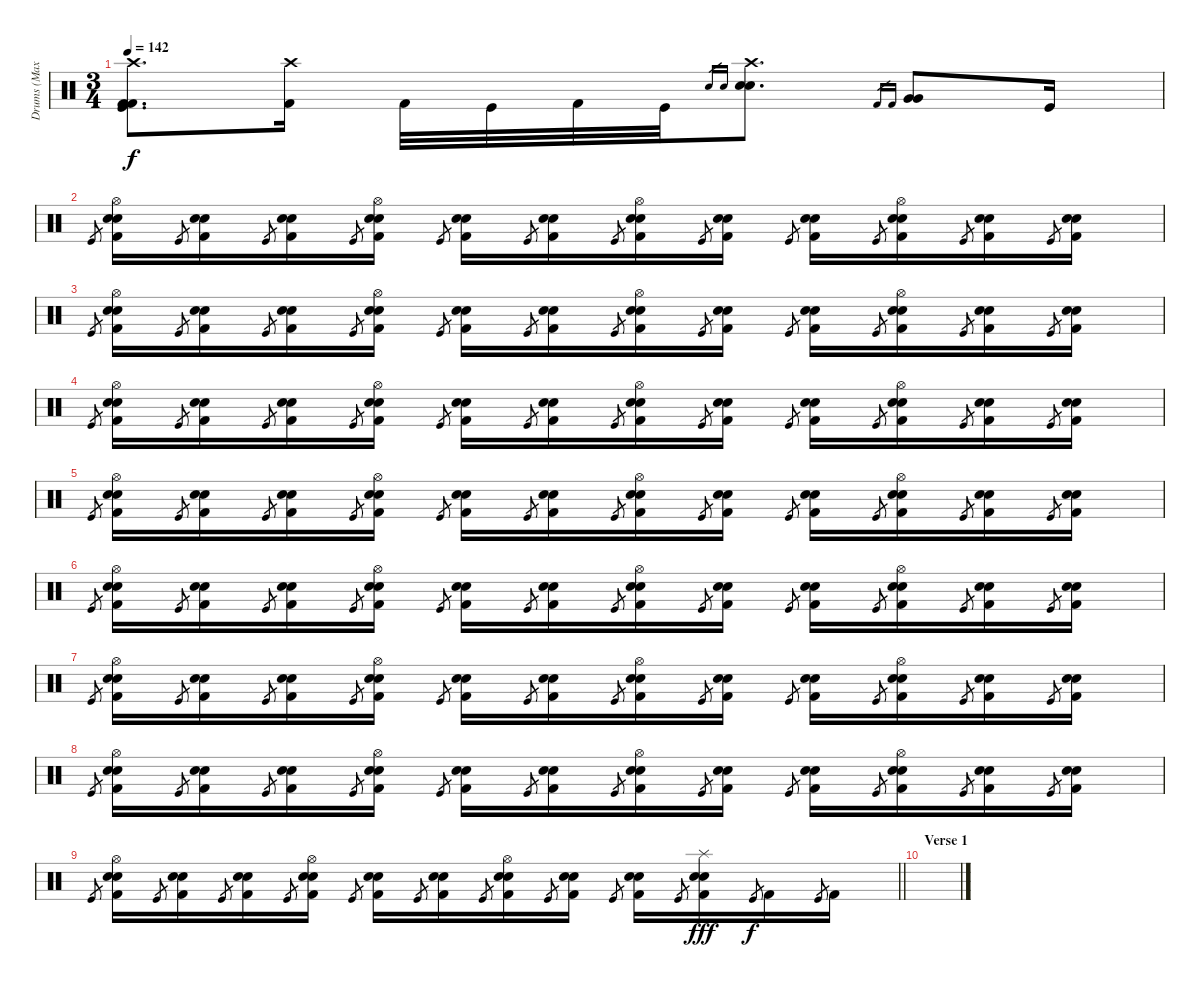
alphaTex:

\track ("Drums (Max)" "Drums (Max") {instrument percussion}
\staff {score}
\articulation defaults
\ts (3 4)
\tempo 142
\clef neutral
\ks c
("Crash high (hit)" "Kick (hit)" "Kick (hit) 2" "Kick (hit) 2").8{d dy f} ("Crash high (hit)" "Kick (hit) 2").16 "Kick (hit) 2".32 "Kick (hit)".32 "Kick (hit) 2".32 "Kick (hit)".32 "Electric Snare (hit)".16{gr} "Snare (hit) 2".16{gr} ("Crash high (hit)" "Electric Snare (hit)" "Snare (hit) 2").8{d} "Kick (hit) 2".16{gr} "Kick (hit) 2".16{gr} ("Very Low Tom (hit)" "Very Low Tom (hit)").8 "Kick (hit)".16 |
"Kick (hit)".8{gr} ("Hi-Hat (open)" "Electric Snare (hit)" "Snare (hit) 2" "Kick (hit) 2").16 "Kick (hit)".8{gr} ("Electric Snare (hit)" "Snare (hit) 2" "Kick (hit) 2").16 "Kick (hit)".8{gr} ("Electric Snare (hit)" "Snare (hit) 2" "Kick (hit) 2").16 "Kick (hit)".8{gr} ("Hi-Hat (open)" "Electric Snare (hit)" "Snare (hit) 2" "Kick (hit) 2").16 "Kick (hit)".8{gr} ("Electric Snare (hit)" "Snare (hit) 2" "Kick (hit) 2").16 "Kick (hit)".8{gr} ("Electric Snare (hit)" "Snare (hit) 2" "Kick (hit) 2").16 "Kick (hit)".8{gr} ("Hi-Hat (open)" "Electric Snare (hit)" "Snare (hit) 2" "Kick (hit) 2").16 "Kick (hit)".8{gr} ("Electric Snare (hit)" "Snare (hit) 2" "Kick (hit) 2").16 "Kick (hit)".8{gr} ("Electric Snare (hit)" "Snare (hit) 2" "Kick (hit) 2").16 "Kick (hit)".8{gr} ("Hi-Hat (open)" "Electric Snare (hit)" "Snare (hit) 2" "Kick (hit) 2").16 "Kick (hit)".8{gr} ("Electric Snare (hit)" "Snare (hit) 2" "Kick (hit) 2").16 "Kick (hit)".8{gr} ("Electric Snare (hit)" "Snare (hit) 2" "Kick (hit) 2").16 |
"Kick (hit)".8{gr} ("Hi-Hat (open)" "Electric Snare (hit)" "Snare (hit) 2" "Kick (hit) 2").16 "Kick (hit)".8{gr} ("Electric Snare (hit)" "Snare (hit) 2" "Kick (hit) 2").16 "Kick (hit)".8{gr} ("Electric Snare (hit)" "Snare (hit) 2" "Kick (hit) 2").16 "Kick (hit)".8{gr} ("Hi-Hat (open)" "Electric Snare (hit)" "Snare (hit) 2" "Kick (hit) 2").16 "Kick (hit)".8{gr} ("Electric Snare (hit)" "Snare (hit) 2" "Kick (hit) 2").16 "Kick (hit)".8{gr} ("Electric Snare (hit)" "Snare (hit) 2" "Kick (hit) 2").16 "Kick (hit)".8{gr} ("Hi-Hat (open)" "Electric Snare (hit)" "Snare (hit) 2" "Kick (hit) 2").16 "Kick (hit)".8{gr} ("Electric Snare (hit)" "Snare (hit) 2" "Kick (hit) 2").16 "Kick (hit)".8{gr} ("Electric Snare (hit)" "Snare (hit) 2" "Kick (hit) 2").16 "Kick (hit)".8{gr} ("Hi-Hat (open)" "Electric Snare (hit)" "Snare (hit) 2" "Kick (hit) 2").16 "Kick (hit)".8{gr} ("Electric Snare (hit)" "Snare (hit) 2" "Kick (hit) 2").16 "Kick (hit)".8{gr} ("Electric Snare (hit)" "Snare (hit) 2" "Kick (hit) 2").16 |
"Kick (hit)".8{gr} ("Hi-Hat (open)" "Electric Snare (hit)" "Snare (hit) 2" "Kick (hit) 2").16 "Kick (hit)".8{gr} ("Electric Snare (hit)" "Snare (hit) 2" "Kick (hit) 2").16 "Kick (hit)".8{gr} ("Electric Snare (hit)" "Snare (hit) 2" "Kick (hit) 2").16 "Kick (hit)".8{gr} ("Hi-Hat (open)" "Electric Snare (hit)" "Snare (hit) 2" "Kick (hit) 2").16 "Kick (hit)".8{gr} ("Electric Snare (hit)" "Snare (hit) 2" "Kick (hit) 2").16 "Kick (hit)".8{gr} ("Electric Snare (hit)" "Snare (hit) 2" "Kick (hit) 2").16 "Kick (hit)".8{gr} ("Hi-Hat (open)" "Electric Snare (hit)" "Snare (hit) 2" "Kick (hit) 2").16 "Kick (hit)".8{gr} ("Electric Snare (hit)" "Snare (hit) 2" "Kick (hit) 2").16 "Kick (hit)".8{gr} ("Electric Snare (hit)" "Snare (hit) 2" "Kick (hit) 2").16 "Kick (hit)".8{gr} ("Hi-Hat (open)" "Electric Snare (hit)" "Snare (hit) 2" "Kick (hit) 2").16 "Kick (hit)".8{gr} ("Electric Snare (hit)" "Snare (hit) 2" "Kick (hit) 2").16 "Kick (hit)".8{gr} ("Electric Snare (hit)" "Snare (hit) 2" "Kick (hit) 2").16 |
"Kick (hit)".8{gr} ("Hi-Hat (open)" "Electric Snare (hit)" "Snare (hit) 2" "Kick (hit) 2").16 "Kick (hit)".8{gr} ("Electric Snare (hit)" "Snare (hit) 2" "Kick (hit) 2").16 "Kick (hit)".8{gr} ("Electric Snare (hit)" "Snare (hit) 2" "Kick (hit) 2").16 "Kick (hit)".8{gr} ("Hi-Hat (open)" "Electric Snare (hit)" "Snare (hit) 2" "Kick (hit) 2").16 "Kick (hit)".8{gr} ("Electric Snare (hit)" "Snare (hit) 2" "Kick (hit) 2").16 "Kick (hit)".8{gr} ("Electric Snare (hit)" "Snare (hit) 2" "Kick (hit) 2").16 "Kick (hit)".8{gr} ("Hi-Hat (open)" "Electric Snare (hit)" "Snare (hit) 2" "Kick (hit) 2").16 "Kick (hit)".8{gr} ("Electric Snare (hit)" "Snare (hit) 2" "Kick (hit) 2").16 "Kick (hit)".8{gr} ("Electric Snare (hit)" "Snare (hit) 2" "Kick (hit) 2").16 "Kick (hit)".8{gr} ("Hi-Hat (open)" "Electric Snare (hit)" "Snare (hit) 2" "Kick (hit) 2").16 "Kick (hit)".8{gr} ("Electric Snare (hit)" "Snare (hit) 2" "Kick (hit) 2").16 "Kick (hit)".8{gr} ("Electric Snare (hit)" "Snare (hit) 2" "Kick (hit) 2").16 |
"Kick (hit)".8{gr} ("Hi-Hat (open)" "Electric Snare (hit)" "Snare (hit) 2" "Kick (hit) 2").16 "Kick (hit)".8{gr} ("Electric Snare (hit)" "Snare (hit) 2" "Kick (hit) 2").16 "Kick (hit)".8{gr} ("Electric Snare (hit)" "Snare (hit) 2" "Kick (hit) 2").16 "Kick (hit)".8{gr} ("Hi-Hat (open)" "Electric Snare (hit)" "Snare (hit) 2" "Kick (hit) 2").16 "Kick (hit)".8{gr} ("Electric Snare (hit)" "Snare (hit) 2" "Kick (hit) 2").16 "Kick (hit)".8{gr} ("Electric Snare (hit)" "Snare (hit) 2" "Kick (hit) 2").16 "Kick (hit)".8{gr} ("Hi-Hat (open)" "Electric Snare (hit)" "Snare (hit) 2" "Kick (hit) 2").16 "Kick (hit)".8{gr} ("Electric Snare (hit)" "Snare (hit) 2" "Kick (hit) 2").16 "Kick (hit)".8{gr} ("Electric Snare (hit)" "Snare (hit) 2" "Kick (hit) 2").16 "Kick (hit)".8{gr} ("Hi-Hat (open)" "Electric Snare (hit)" "Snare (hit) 2" "Kick (hit) 2").16 "Kick (hit)".8{gr} ("Electric Snare (hit)" "Snare (hit) 2" "Kick (hit) 2").16 "Kick (hit)".8{gr} ("Electric Snare (hit)" "Snare (hit) 2" "Kick (hit) 2").16 |
"Kick (hit)".8{gr} ("Hi-Hat (open)" "Electric Snare (hit)" "Snare (hit) 2" "Kick (hit) 2").16 "Kick (hit)".8{gr} ("Electric Snare (hit)" "Snare (hit) 2" "Kick (hit) 2").16 "Kick (hit)".8{gr} ("Electric Snare (hit)" "Snare (hit) 2" "Kick (hit) 2").16 "Kick (hit)".8{gr} ("Hi-Hat (open)" "Electric Snare (hit)" "Snare (hit) 2" "Kick (hit) 2").16 "Kick (hit)".8{gr} ("Electric Snare (hit)" "Snare (hit) 2" "Kick (hit) 2").16 "Kick (hit)".8{gr} ("Electric Snare (hit)" "Snare (hit) 2" "Kick (hit) 2").16 "Kick (hit)".8{gr} ("Hi-Hat (open)" "Electric Snare (hit)" "Snare (hit) 2" "Kick (hit) 2").16 "Kick (hit)".8{gr} ("Electric Snare (hit)" "Snare (hit) 2" "Kick (hit) 2").16 "Kick (hit)".8{gr} ("Electric Snare (hit)" "Snare (hit) 2" "Kick (hit) 2").16 "Kick (hit)".8{gr} ("Hi-Hat (open)" "Electric Snare (hit)" "Snare (hit) 2" "Kick (hit) 2").16 "Kick (hit)".8{gr} ("Electric Snare (hit)" "Snare (hit) 2" "Kick (hit) 2").16 "Kick (hit)".8{gr} ("Electric Snare (hit)" "Snare (hit) 2" "Kick (hit) 2").16 |
"Kick (hit)".8{gr} ("Hi-Hat (open)" "Electric Snare (hit)" "Snare (hit) 2" "Kick (hit) 2").16 "Kick (hit)".8{gr} ("Electric Snare (hit)" "Snare (hit) 2" "Kick (hit) 2").16 "Kick (hit)".8{gr} ("Electric Snare (hit)" "Snare (hit) 2" "Kick (hit) 2").16 "Kick (hit)".8{gr} ("Hi-Hat (open)" "Electric Snare (hit)" "Snare (hit) 2" "Kick (hit) 2").16 "Kick (hit)".8{gr} ("Electric Snare (hit)" "Snare (hit) 2" "Kick (hit) 2").16 "Kick (hit)".8{gr} ("Electric Snare (hit)" "Snare (hit) 2" "Kick (hit) 2").16 "Kick (hit)".8{gr} ("Hi-Hat (open)" "Electric Snare (hit)" "Snare (hit) 2" "Kick (hit) 2").16 "Kick (hit)".8{gr} ("Electric Snare (hit)" "Snare (hit) 2" "Kick (hit) 2").16 "Kick (hit)".8{gr} ("Electric Snare (hit)" "Snare (hit) 2" "Kick (hit) 2").16 "Kick (hit)".8{gr} ("Hi-Hat (open)" "Electric Snare (hit)" "Snare (hit) 2" "Kick (hit) 2").16 "Kick (hit)".8{gr} ("Electric Snare (hit)" "Snare (hit) 2" "Kick (hit) 2").16 "Kick (hit)".8{gr} ("Electric Snare (hit)" "Snare (hit) 2" "Kick (hit) 2").16 |
\barLineRight lightlight "Kick (hit)".8{gr}
("Hi-Hat (open)" "Electric Snare (hit)" "Snare (hit) 2" "Kick (hit) 2").16 "Kick (hit)".8{gr} ("Electric Snare (hit)" "Snare (hit) 2" "Kick (hit) 2").16 "Kick (hit)".8{gr} ("Electric Snare (hit)" "Snare (hit) 2" "Kick (hit) 2").16 "Kick (hit)".8{gr} ("Hi-Hat (open)" "Electric Snare (hit)" "Snare (hit) 2" "Kick (hit) 2").16 "Kick (hit)".8{gr} ("Electric Snare (hit)" "Snare (hit) 2" "Kick (hit) 2").16 "Kick (hit)".8{gr} ("Electric Snare (hit)" "Snare (hit) 2" "Kick (hit) 2").16 "Kick (hit)".8{gr} ("Hi-Hat (open)" "Electric Snare (hit)" "Snare (hit) 2" "Kick (hit) 2").16 "Kick (hit)".8{gr} ("Electric Snare (hit)" "Snare (hit) 2" "Kick (hit) 2").16 "Kick (hit)".8{gr} ("Electric Snare (hit)" "Snare (hit) 2" "Kick (hit) 2").16 "Kick (hit)".8{gr} ("Splash (hit)" "Electric Snare (hit)" "Snare (hit) 2" "Kick (hit) 2").16{dy fff} "Kick (hit)".8{gr dy f} "Kick (hit) 2".16 "Kick (hit)".8{gr} "Kick (hit) 2".16 |
\section ("" "Verse 1")
